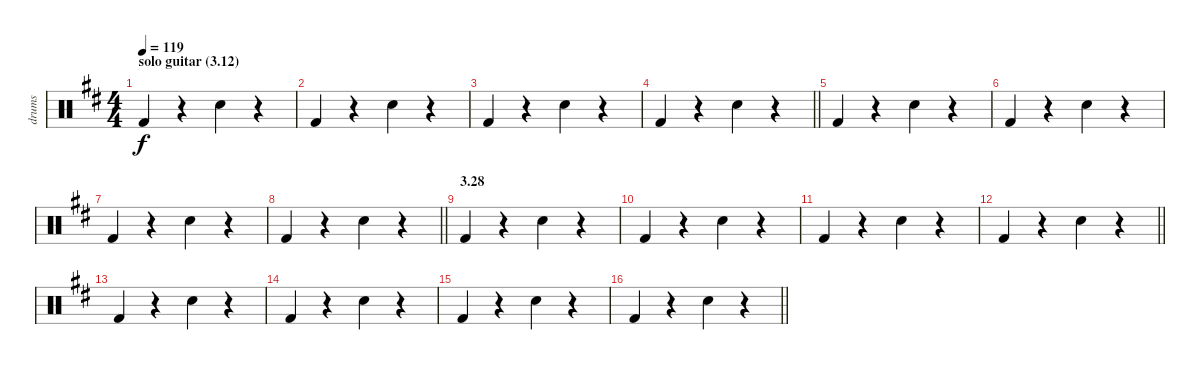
\track ("drums" "drums") {instrument percussion}
\staff {score}
\articulation defaults
\ts (4 4)
\section ("" "solo guitar (3.12)")
\tempo 119
\clef neutral
\ks d "Kick (hit) 2".4{dy f}
r.4 "Electric Snare (hit)".4 r.4 |
"Kick (hit) 2".4 r.4 "Electric Snare (hit)".4 r.4 |
"Kick (hit) 2".4 r.4 "Electric Snare (hit)".4 r.4 |
\barLineRight lightlight "Kick (hit) 2".4
r.4 "Electric Snare (hit)".4 r.4 |
"Kick (hit) 2".4 r.4 "Electric Snare (hit)".4 r.4 |
"Kick (hit) 2".4 r.4 "Electric Snare (hit)".4 r.4 |
"Kick (hit) 2".4 r.4 "Electric Snare (hit)".4 r.4 |
\barLineRight lightlight "Kick (hit) 2".4
r.4 "Electric Snare (hit)".4 r.4 |
\section ("" "3.28")
"Kick (hit) 2".4 r.4 "Electric Snare (hit)".4 r.4 |
"Kick (hit) 2".4 r.4 "Electric Snare (hit)".4 r.4 |
"Kick (hit) 2".4 r.4 "Electric Snare (hit)".4 r.4 |
\barLineRight lightlight "Kick (hit) 2".4
r.4 "Electric Snare (hit)".4 r.4 |
"Kick (hit) 2".4 r.4 "Electric Snare (hit)".4 r.4 |
"Kick (hit) 2".4 r.4 "Electric Snare (hit)".4 r.4 |
"Kick (hit) 2".4 r.4 "Electric Snare (hit)".4 r.4 |
\barLineRight lightlight "Kick (hit) 2".4
r.4 "Electric Snare (hit)".4 r.4
